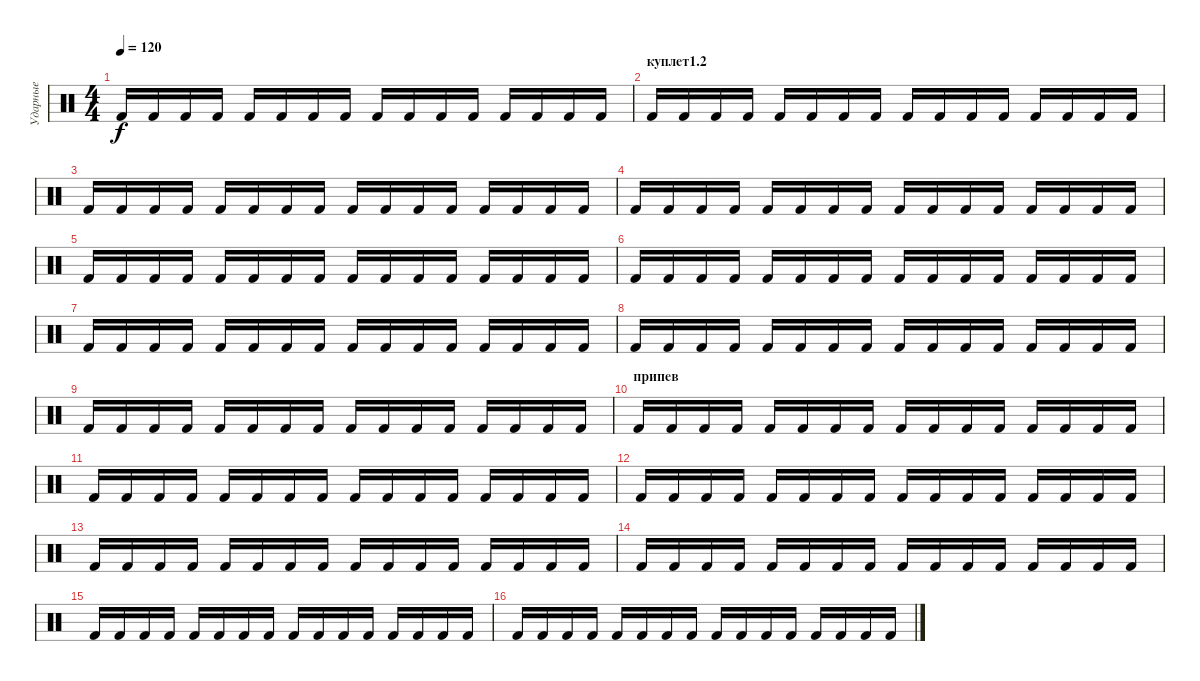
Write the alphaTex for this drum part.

\track ("Ударные" "Ударные") {instrument percussion}
\staff {score}
\articulation defaults
\ts (4 4)
\tempo 120
\clef neutral
\ks c "Kick (hit) 2".16{dy f} "Kick (hit) 2".16 "Kick (hit) 2".16 "Kick (hit) 2".16 "Kick (hit) 2".16 "Kick (hit) 2".16 "Kick (hit) 2".16 "Kick (hit) 2".16 "Kick (hit) 2".16 "Kick (hit) 2".16 "Kick (hit) 2".16 "Kick (hit) 2".16 "Kick (hit) 2".16 "Kick (hit) 2".16 "Kick (hit) 2".16 "Kick (hit) 2".16
|
\section ("" "куплет1.2")
"Kick (hit) 2".16 "Kick (hit) 2".16 "Kick (hit) 2".16 "Kick (hit) 2".16 "Kick (hit) 2".16 "Kick (hit) 2".16 "Kick (hit) 2".16 "Kick (hit) 2".16 "Kick (hit) 2".16 "Kick (hit) 2".16 "Kick (hit) 2".16 "Kick (hit) 2".16 "Kick (hit) 2".16 "Kick (hit) 2".16 "Kick (hit) 2".16 "Kick (hit) 2".16 |
"Kick (hit) 2".16 "Kick (hit) 2".16 "Kick (hit) 2".16 "Kick (hit) 2".16 "Kick (hit) 2".16 "Kick (hit) 2".16 "Kick (hit) 2".16 "Kick (hit) 2".16 "Kick (hit) 2".16 "Kick (hit) 2".16 "Kick (hit) 2".16 "Kick (hit) 2".16 "Kick (hit) 2".16 "Kick (hit) 2".16 "Kick (hit) 2".16 "Kick (hit) 2".16 |
"Kick (hit) 2".16 "Kick (hit) 2".16 "Kick (hit) 2".16 "Kick (hit) 2".16 "Kick (hit) 2".16 "Kick (hit) 2".16 "Kick (hit) 2".16 "Kick (hit) 2".16 "Kick (hit) 2".16 "Kick (hit) 2".16 "Kick (hit) 2".16 "Kick (hit) 2".16 "Kick (hit) 2".16 "Kick (hit) 2".16 "Kick (hit) 2".16 "Kick (hit) 2".16 |
"Kick (hit) 2".16 "Kick (hit) 2".16 "Kick (hit) 2".16 "Kick (hit) 2".16 "Kick (hit) 2".16 "Kick (hit) 2".16 "Kick (hit) 2".16 "Kick (hit) 2".16 "Kick (hit) 2".16 "Kick (hit) 2".16 "Kick (hit) 2".16 "Kick (hit) 2".16 "Kick (hit) 2".16 "Kick (hit) 2".16 "Kick (hit) 2".16 "Kick (hit) 2".16 |
"Kick (hit) 2".16 "Kick (hit) 2".16 "Kick (hit) 2".16 "Kick (hit) 2".16 "Kick (hit) 2".16 "Kick (hit) 2".16 "Kick (hit) 2".16 "Kick (hit) 2".16 "Kick (hit) 2".16 "Kick (hit) 2".16 "Kick (hit) 2".16 "Kick (hit) 2".16 "Kick (hit) 2".16 "Kick (hit) 2".16 "Kick (hit) 2".16 "Kick (hit) 2".16 |
"Kick (hit) 2".16 "Kick (hit) 2".16 "Kick (hit) 2".16 "Kick (hit) 2".16 "Kick (hit) 2".16 "Kick (hit) 2".16 "Kick (hit) 2".16 "Kick (hit) 2".16 "Kick (hit) 2".16 "Kick (hit) 2".16 "Kick (hit) 2".16 "Kick (hit) 2".16 "Kick (hit) 2".16 "Kick (hit) 2".16 "Kick (hit) 2".16 "Kick (hit) 2".16 |
"Kick (hit) 2".16 "Kick (hit) 2".16 "Kick (hit) 2".16 "Kick (hit) 2".16 "Kick (hit) 2".16 "Kick (hit) 2".16 "Kick (hit) 2".16 "Kick (hit) 2".16 "Kick (hit) 2".16 "Kick (hit) 2".16 "Kick (hit) 2".16 "Kick (hit) 2".16 "Kick (hit) 2".16 "Kick (hit) 2".16 "Kick (hit) 2".16 "Kick (hit) 2".16 |
"Kick (hit) 2".16 "Kick (hit) 2".16 "Kick (hit) 2".16 "Kick (hit) 2".16 "Kick (hit) 2".16 "Kick (hit) 2".16 "Kick (hit) 2".16 "Kick (hit) 2".16 "Kick (hit) 2".16 "Kick (hit) 2".16 "Kick (hit) 2".16 "Kick (hit) 2".16 "Kick (hit) 2".16 "Kick (hit) 2".16 "Kick (hit) 2".16 "Kick (hit) 2".16 |
\section ("" "припев")
"Kick (hit) 2".16 "Kick (hit) 2".16 "Kick (hit) 2".16 "Kick (hit) 2".16 "Kick (hit) 2".16 "Kick (hit) 2".16 "Kick (hit) 2".16 "Kick (hit) 2".16 "Kick (hit) 2".16 "Kick (hit) 2".16 "Kick (hit) 2".16 "Kick (hit) 2".16 "Kick (hit) 2".16 "Kick (hit) 2".16 "Kick (hit) 2".16 "Kick (hit) 2".16 |
"Kick (hit) 2".16 "Kick (hit) 2".16 "Kick (hit) 2".16 "Kick (hit) 2".16 "Kick (hit) 2".16 "Kick (hit) 2".16 "Kick (hit) 2".16 "Kick (hit) 2".16 "Kick (hit) 2".16 "Kick (hit) 2".16 "Kick (hit) 2".16 "Kick (hit) 2".16 "Kick (hit) 2".16 "Kick (hit) 2".16 "Kick (hit) 2".16 "Kick (hit) 2".16 |
"Kick (hit) 2".16 "Kick (hit) 2".16 "Kick (hit) 2".16 "Kick (hit) 2".16 "Kick (hit) 2".16 "Kick (hit) 2".16 "Kick (hit) 2".16 "Kick (hit) 2".16 "Kick (hit) 2".16 "Kick (hit) 2".16 "Kick (hit) 2".16 "Kick (hit) 2".16 "Kick (hit) 2".16 "Kick (hit) 2".16 "Kick (hit) 2".16 "Kick (hit) 2".16 |
"Kick (hit) 2".16 "Kick (hit) 2".16 "Kick (hit) 2".16 "Kick (hit) 2".16 "Kick (hit) 2".16 "Kick (hit) 2".16 "Kick (hit) 2".16 "Kick (hit) 2".16 "Kick (hit) 2".16 "Kick (hit) 2".16 "Kick (hit) 2".16 "Kick (hit) 2".16 "Kick (hit) 2".16 "Kick (hit) 2".16 "Kick (hit) 2".16 "Kick (hit) 2".16 |
"Kick (hit) 2".16 "Kick (hit) 2".16 "Kick (hit) 2".16 "Kick (hit) 2".16 "Kick (hit) 2".16 "Kick (hit) 2".16 "Kick (hit) 2".16 "Kick (hit) 2".16 "Kick (hit) 2".16 "Kick (hit) 2".16 "Kick (hit) 2".16 "Kick (hit) 2".16 "Kick (hit) 2".16 "Kick (hit) 2".16 "Kick (hit) 2".16 "Kick (hit) 2".16 |
"Kick (hit) 2".16 "Kick (hit) 2".16 "Kick (hit) 2".16 "Kick (hit) 2".16 "Kick (hit) 2".16 "Kick (hit) 2".16 "Kick (hit) 2".16 "Kick (hit) 2".16 "Kick (hit) 2".16 "Kick (hit) 2".16 "Kick (hit) 2".16 "Kick (hit) 2".16 "Kick (hit) 2".16 "Kick (hit) 2".16 "Kick (hit) 2".16 "Kick (hit) 2".16 |
"Kick (hit) 2".16 "Kick (hit) 2".16 "Kick (hit) 2".16 "Kick (hit) 2".16 "Kick (hit) 2".16 "Kick (hit) 2".16 "Kick (hit) 2".16 "Kick (hit) 2".16 "Kick (hit) 2".16 "Kick (hit) 2".16 "Kick (hit) 2".16 "Kick (hit) 2".16 "Kick (hit) 2".16 "Kick (hit) 2".16 "Kick (hit) 2".16 "Kick (hit) 2".16
